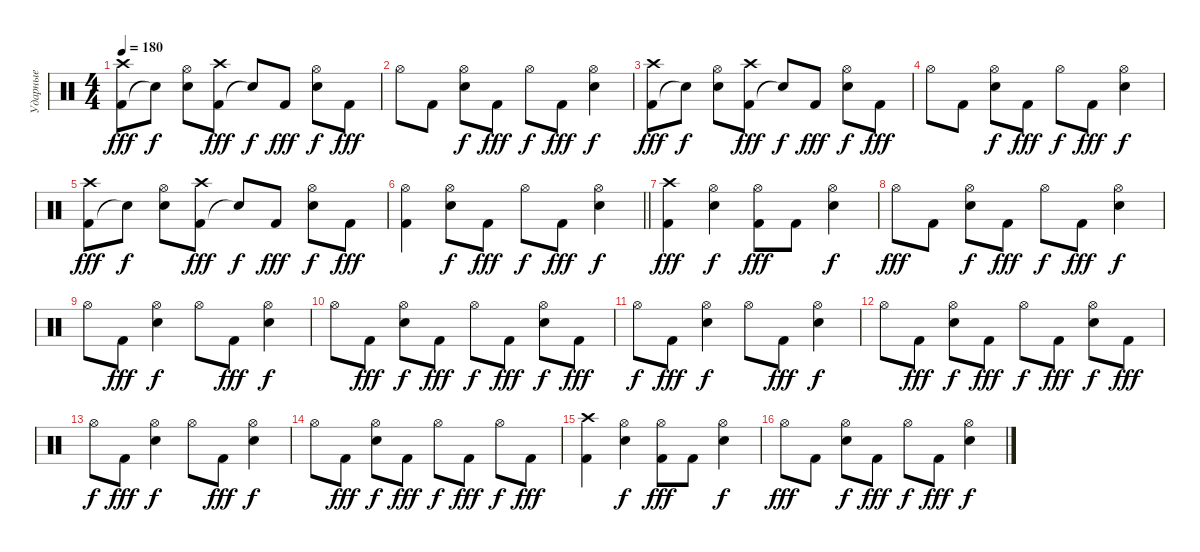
\track ("Ударные" "Ударные") {instrument percussion}
\staff
\articulation defaults
\ts (4 4)
\tempo 180
\clef neutral
\ks c
("Kick (hit) 2" "Crash high (hit)").8{dy fff} "Snare (hit)"{t}.8{dy f} ("Snare (hit) 2" "Hi-Hat (open)").8 ("Kick (hit) 2" "Crash high (hit)").8{dy fff} "Snare (hit)"{t}.8{dy f} "Kick (hit) 2".8{dy fff} ("Snare (hit) 2" "Hi-Hat (open)").8{dy f} "Kick (hit) 2".8{dy fff} |
"Hi-Hat (open)".8 "Kick (hit) 2".8 ("Snare (hit) 2" "Hi-Hat (open)").8{dy f} "Kick (hit) 2".8{dy fff} "Hi-Hat (open)".8{dy f} "Kick (hit) 2".8{dy fff} ("Snare (hit) 2" "Hi-Hat (open)").4{dy f} |
("Kick (hit) 2" "Crash high (hit)").8{dy fff} "Snare (hit)"{t}.8{dy f} ("Snare (hit) 2" "Hi-Hat (open)").8 ("Kick (hit) 2" "Crash high (hit)").8{dy fff} "Snare (hit)"{t}.8{dy f} "Kick (hit) 2".8{dy fff} ("Snare (hit) 2" "Hi-Hat (open)").8{dy f} "Kick (hit) 2".8{dy fff} |
"Hi-Hat (open)".8 "Kick (hit) 2".8 ("Snare (hit) 2" "Hi-Hat (open)").8{dy f} "Kick (hit) 2".8{dy fff} "Hi-Hat (open)".8{dy f} "Kick (hit) 2".8{dy fff} ("Snare (hit) 2" "Hi-Hat (open)").4{dy f} |
("Kick (hit) 2" "Crash high (hit)").8{dy fff} "Snare (hit)"{t}.8{dy f} ("Snare (hit) 2" "Hi-Hat (open)").8 ("Kick (hit) 2" "Crash high (hit)").8{dy fff} "Snare (hit)"{t}.8{dy f} "Kick (hit) 2".8{dy fff} ("Snare (hit) 2" "Hi-Hat (open)").8{dy f} "Kick (hit) 2".8{dy fff} |
\barLineRight lightlight
("Kick (hit) 2" "Hi-Hat (open)").4 ("Snare (hit) 2" "Hi-Hat (open)").8{dy f} "Kick (hit) 2".8{dy fff} "Hi-Hat (open)".8{dy f} "Kick (hit) 2".8{dy fff} ("Snare (hit) 2" "Hi-Hat (open)").4{dy f} |
("Kick (hit) 2" "Crash high (hit)").4{dy fff} ("Snare (hit) 2" "Hi-Hat (open)").4{dy f} ("Kick (hit) 2" "Hi-Hat (open)").8{dy fff} "Kick (hit) 2".8 ("Snare (hit) 2" "Hi-Hat (open)").4{dy f} |
"Hi-Hat (open)".8{dy fff} "Kick (hit) 2".8 ("Snare (hit) 2" "Hi-Hat (open)").8{dy f} "Kick (hit) 2".8{dy fff} "Hi-Hat (open)".8{dy f} "Kick (hit) 2".8{dy fff} ("Snare (hit) 2" "Hi-Hat (open)").4{dy f} |
"Hi-Hat (open)".8 "Kick (hit) 2".8{dy fff} ("Snare (hit) 2" "Hi-Hat (open)").4{dy f} "Hi-Hat (open)".8 "Kick (hit) 2".8{dy fff} ("Snare (hit) 2" "Hi-Hat (open)").4{dy f} |
"Hi-Hat (open)".8 "Kick (hit) 2".8{dy fff} ("Snare (hit) 2" "Hi-Hat (open)").8{dy f} "Kick (hit) 2".8{dy fff} "Hi-Hat (open)".8{dy f} "Kick (hit) 2".8{dy fff} ("Snare (hit) 2" "Hi-Hat (open)").8{dy f} "Kick (hit) 2".8{dy fff} |
"Hi-Hat (open)".8{dy f} "Kick (hit) 2".8{dy fff} ("Snare (hit) 2" "Hi-Hat (open)").4{dy f} "Hi-Hat (open)".8 "Kick (hit) 2".8{dy fff} ("Snare (hit) 2" "Hi-Hat (open)").4{dy f} |
"Hi-Hat (open)".8 "Kick (hit) 2".8{dy fff} ("Snare (hit) 2" "Hi-Hat (open)").8{dy f} "Kick (hit) 2".8{dy fff} "Hi-Hat (open)".8{dy f} "Kick (hit) 2".8{dy fff} ("Snare (hit) 2" "Hi-Hat (open)").8{dy f} "Kick (hit) 2".8{dy fff} |
"Hi-Hat (open)".8{dy f} "Kick (hit) 2".8{dy fff} ("Snare (hit) 2" "Hi-Hat (open)").4{dy f} "Hi-Hat (open)".8 "Kick (hit) 2".8{dy fff} ("Snare (hit) 2" "Hi-Hat (open)").4{dy f} |
"Hi-Hat (open)".8 "Kick (hit) 2".8{dy fff} ("Snare (hit) 2" "Hi-Hat (open)").8{dy f} "Kick (hit) 2".8{dy fff} "Hi-Hat (open)".8{dy f} "Kick (hit) 2".8{dy fff} "Hi-Hat (open)".8{dy f} "Kick (hit) 2".8{dy fff} |
("Kick (hit) 2" "Crash high (hit)").4 ("Snare (hit) 2" "Hi-Hat (open)").4{dy f} ("Kick (hit) 2" "Hi-Hat (open)").8{dy fff} "Kick (hit) 2".8 ("Snare (hit) 2" "Hi-Hat (open)").4{dy f} |
"Hi-Hat (open)".8{dy fff} "Kick (hit) 2".8 ("Snare (hit) 2" "Hi-Hat (open)").8{dy f} "Kick (hit) 2".8{dy fff} "Hi-Hat (open)".8{dy f} "Kick (hit) 2".8{dy fff} ("Snare (hit) 2" "Hi-Hat (open)").4{dy f}
